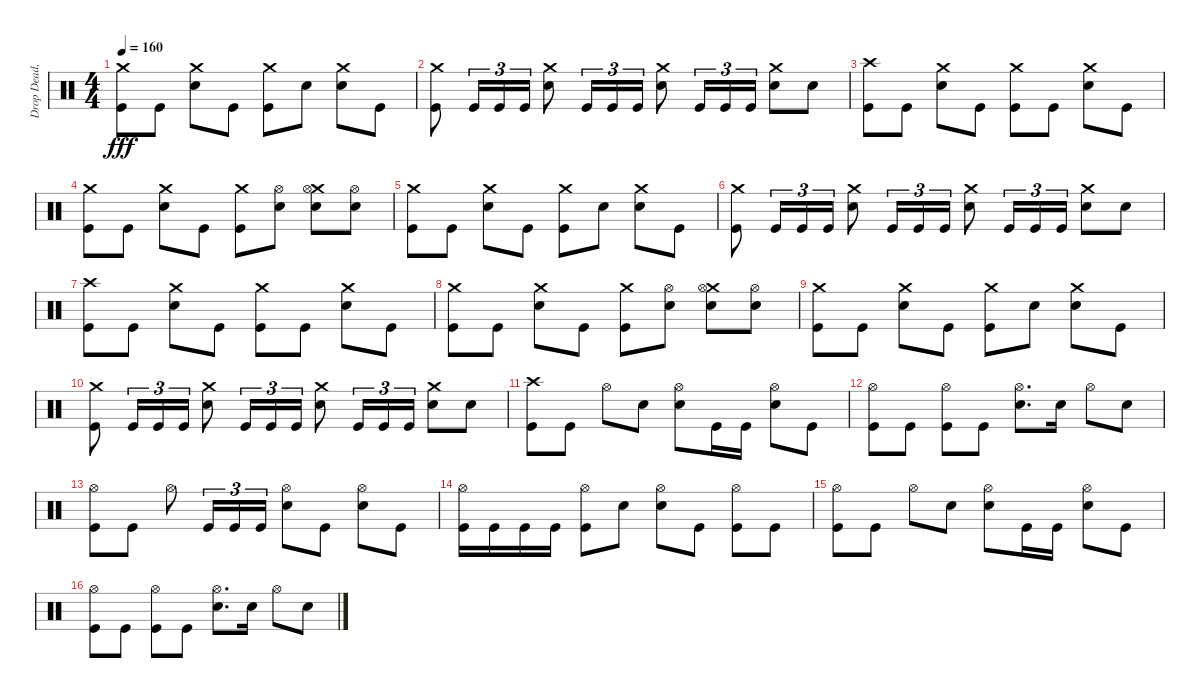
\track ("Drop Dead, Johnny" "Drop Dead,") {instrument percussion}
\staff {score}
\articulation defaults
\ts (4 4)
\tempo 160
\clef neutral
\ks c
("Crash medium (hit)" "Kick (hit)").8{dy fff} "Kick (hit)".8 ("Crash medium (hit)" "Electric Snare (hit)").8 "Kick (hit)".8 ("Crash medium (hit)" "Kick (hit)").8 "Electric Snare (hit)".8 ("Crash medium (hit)" "Electric Snare (hit)").8 "Kick (hit)".8 |
("Crash medium (hit)" "Kick (hit)").8 "Kick (hit)".16{tu (3 2)} "Kick (hit)".16{tu (3 2)} "Kick (hit)".16{tu (3 2)} ("Crash medium (hit)" "Electric Snare (hit)").8 "Kick (hit)".16{tu (3 2)} "Kick (hit)".16{tu (3 2)} "Kick (hit)".16{tu (3 2)} ("Crash medium (hit)" "Electric Snare (hit)").8 "Kick (hit)".16{tu (3 2)} "Kick (hit)".16{tu (3 2)} "Kick (hit)".16{tu (3 2)} ("Crash medium (hit)" "Electric Snare (hit)").8 "Electric Snare (hit)".8 |
("Crash high (hit)" "Kick (hit)").8 "Kick (hit)".8 ("Crash medium (hit)" "Electric Snare (hit)").8 "Kick (hit)".8 ("Crash medium (hit)" "Kick (hit)").8 "Kick (hit)".8 ("Crash medium (hit)" "Electric Snare (hit)").8 "Kick (hit)".8 |
("Crash medium (hit)" "Kick (hit)").8 "Kick (hit)".8 ("Crash medium (hit)" "Electric Snare (hit)").8 "Kick (hit)".8 ("Crash medium (hit)" "Kick (hit)").8 ("Hi-Hat (open)" "Electric Snare (hit)").8 ("Crash medium (hit)" "Hi-Hat (open)" "Electric Snare (hit)").8 ("Hi-Hat (open)" "Electric Snare (hit)").8 |
("Crash medium (hit)" "Kick (hit)").8 "Kick (hit)".8 ("Crash medium (hit)" "Electric Snare (hit)").8 "Kick (hit)".8 ("Crash medium (hit)" "Kick (hit)").8 "Electric Snare (hit)".8 ("Crash medium (hit)" "Electric Snare (hit)").8 "Kick (hit)".8 |
("Crash medium (hit)" "Kick (hit)").8 "Kick (hit)".16{tu (3 2)} "Kick (hit)".16{tu (3 2)} "Kick (hit)".16{tu (3 2)} ("Crash medium (hit)" "Electric Snare (hit)").8 "Kick (hit)".16{tu (3 2)} "Kick (hit)".16{tu (3 2)} "Kick (hit)".16{tu (3 2)} ("Crash medium (hit)" "Electric Snare (hit)").8 "Kick (hit)".16{tu (3 2)} "Kick (hit)".16{tu (3 2)} "Kick (hit)".16{tu (3 2)} ("Crash medium (hit)" "Electric Snare (hit)").8 "Electric Snare (hit)".8 |
("Crash high (hit)" "Kick (hit)").8 "Kick (hit)".8 ("Crash medium (hit)" "Electric Snare (hit)").8 "Kick (hit)".8 ("Crash medium (hit)" "Kick (hit)").8 "Kick (hit)".8 ("Crash medium (hit)" "Electric Snare (hit)").8 "Kick (hit)".8 |
("Crash medium (hit)" "Kick (hit)").8 "Kick (hit)".8 ("Crash medium (hit)" "Electric Snare (hit)").8 "Kick (hit)".8 ("Crash medium (hit)" "Kick (hit)").8 ("Hi-Hat (open)" "Electric Snare (hit)").8 ("Crash medium (hit)" "Hi-Hat (open)" "Electric Snare (hit)").8 ("Hi-Hat (open)" "Electric Snare (hit)").8 |
("Crash medium (hit)" "Kick (hit)").8 "Kick (hit)".8 ("Crash medium (hit)" "Electric Snare (hit)").8 "Kick (hit)".8 ("Crash medium (hit)" "Kick (hit)").8 "Electric Snare (hit)".8 ("Crash medium (hit)" "Electric Snare (hit)").8 "Kick (hit)".8 |
("Crash medium (hit)" "Kick (hit)").8 "Kick (hit)".16{tu (3 2)} "Kick (hit)".16{tu (3 2)} "Kick (hit)".16{tu (3 2)} ("Crash medium (hit)" "Electric Snare (hit)").8 "Kick (hit)".16{tu (3 2)} "Kick (hit)".16{tu (3 2)} "Kick (hit)".16{tu (3 2)} ("Crash medium (hit)" "Electric Snare (hit)").8 "Kick (hit)".16{tu (3 2)} "Kick (hit)".16{tu (3 2)} "Kick (hit)".16{tu (3 2)} ("Crash medium (hit)" "Electric Snare (hit)").8 "Electric Snare (hit)".8 |
("Crash high (hit)" "Kick (hit)").8 "Kick (hit)".8 "Hi-Hat (open)".8 "Electric Snare (hit)".8 ("Hi-Hat (open)" "Electric Snare (hit)").8 "Kick (hit)".16 "Kick (hit)".16 ("Hi-Hat (open)" "Electric Snare (hit)").8 "Kick (hit)".8 |
("Hi-Hat (open)" "Kick (hit)").8 "Kick (hit)".8 ("Hi-Hat (open)" "Kick (hit)").8 "Kick (hit)".8 ("Hi-Hat (open)" "Electric Snare (hit)").8{d} "Electric Snare (hit)".16 "Hi-Hat (open)".8 "Electric Snare (hit)".8 |
("Hi-Hat (open)" "Kick (hit)").8 "Kick (hit)".8 "Hi-Hat (open)".8 "Kick (hit)".16{tu (3 2)} "Kick (hit)".16{tu (3 2)} "Kick (hit)".16{tu (3 2)} ("Hi-Hat (open)" "Electric Snare (hit)").8 "Kick (hit)".8 ("Hi-Hat (open)" "Electric Snare (hit)").8 "Kick (hit)".8 |
("Hi-Hat (open)" "Kick (hit)").16 "Kick (hit)".16 "Kick (hit)".16 "Kick (hit)".16 ("Hi-Hat (open)" "Kick (hit)").8 "Electric Snare (hit)".8 ("Hi-Hat (open)" "Electric Snare (hit)").8 "Kick (hit)".8 ("Hi-Hat (open)" "Kick (hit)").8 "Kick (hit)".8 |
("Hi-Hat (open)" "Kick (hit)").8 "Kick (hit)".8 "Hi-Hat (open)".8 "Electric Snare (hit)".8 ("Hi-Hat (open)" "Electric Snare (hit)").8 "Kick (hit)".16 "Kick (hit)".16 ("Hi-Hat (open)" "Electric Snare (hit)").8 "Kick (hit)".8 |
("Hi-Hat (open)" "Kick (hit)").8 "Kick (hit)".8 ("Hi-Hat (open)" "Kick (hit)").8 "Kick (hit)".8 ("Hi-Hat (open)" "Electric Snare (hit)").8{d} "Electric Snare (hit)".16 "Hi-Hat (open)".8 "Electric Snare (hit)".8
